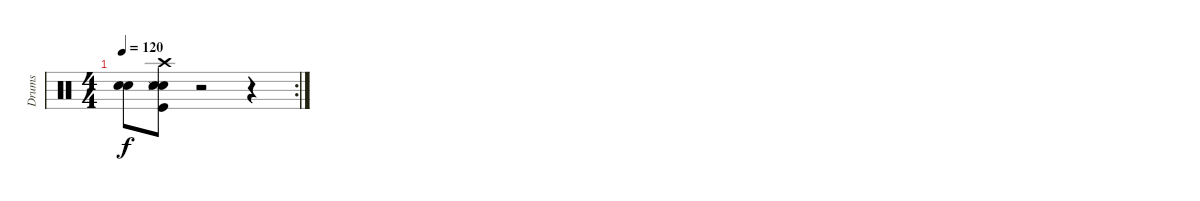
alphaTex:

\track ("Drums" "Drums") {instrument percussion}
\staff {score}
\articulation defaults
\rc 2
\ts (4 4)
\tempo 120
\clef neutral
\ks c
("Snare (hit)" "Snare (hit) 2").8{dy f} ("Snare (hit)" "Kick (hit)" "Snare (hit) 2" "Snare (side stick) 3" "Crash high (hit)").8 r.2 r.4
